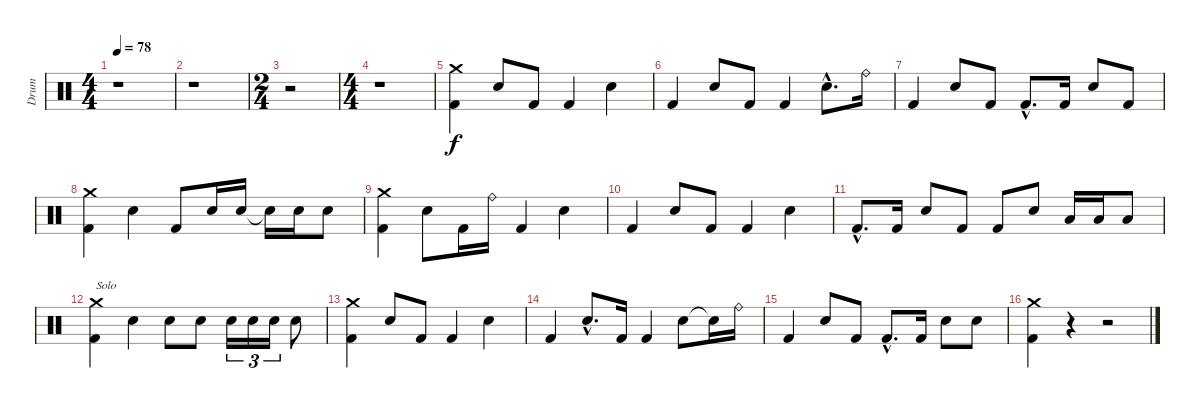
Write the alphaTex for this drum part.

\track ("Drum" "Drum") {instrument percussion}
\staff {score}
\articulation defaults
\ts (4 4)
\tempo 78
\clef neutral
\ks c
r.1{dy f} |
r.1 |
\ts (2 4)
r.2 |
\ts (4 4)
r.1 |
("Crash medium (hit)" "Kick (hit) 2").4 "Electric Snare (hit)".8 "Kick (hit) 2".8 "Kick (hit) 2".4 "Electric Snare (hit)".4 |
"Kick (hit) 2".4 "Electric Snare (hit)".8 "Kick (hit) 2".8 "Kick (hit) 2".4 "Electric Snare (hit)"{hac}.8{d} "Ride (bell)".16 |
"Kick (hit) 2".4 "Electric Snare (hit)".8 "Kick (hit) 2".8 "Kick (hit) 2"{hac}.8{d} "Kick (hit) 2".16 "Electric Snare (hit)".8 "Kick (hit) 2".8 |
("Crash medium (hit)" "Kick (hit) 2").4 "Electric Snare (hit)".4 "Kick (hit) 2".8 "Electric Snare (hit)".16 "Electric Snare (hit)".16 "Snare (hit)"{t}.16 "Electric Snare (hit)".16 "Electric Snare (hit)".8 |
("Crash medium (hit)" "Kick (hit) 2").4 "Electric Snare (hit)".8 "Kick (hit) 2".16 "Ride (bell)".16 "Kick (hit) 2".4 "Electric Snare (hit)".4 |
"Kick (hit) 2".4 "Electric Snare (hit)".8 "Kick (hit) 2".8 "Kick (hit) 2".4 "Electric Snare (hit)".4 |
"Kick (hit) 2"{hac}.8{d} "Kick (hit) 2".16 "Electric Snare (hit)".8 "Kick (hit) 2".8 "Kick (hit) 2".8 "Electric Snare (hit)".8 "Low Floor Tom (hit)".16 "Low Floor Tom (hit)".16 "Low Floor Tom (hit)".8 |
("Crash medium (hit)" "Kick (hit) 2").4{txt "Solo"} "Electric Snare (hit)".4 "Electric Snare (hit)".8 "Electric Snare (hit)".8 "Electric Snare (hit)".16{tu (3 2)} "Electric Snare (hit)".16{tu (3 2)} "Electric Snare (hit)".16{tu (3 2)} "Electric Snare (hit)".8 |
("Crash medium (hit)" "Kick (hit) 2").4 "Electric Snare (hit)".8 "Kick (hit) 2".8 "Kick (hit) 2".4 "Electric Snare (hit)".4 |
"Kick (hit) 2".4 "Electric Snare (hit)"{hac}.8{d} "Kick (hit) 2".16 "Kick (hit) 2".4 "Electric Snare (hit)".8 "Snare (hit)"{t}.16 "Ride (bell)".16 |
"Kick (hit) 2".4 "Electric Snare (hit)".8 "Kick (hit) 2".8 "Kick (hit) 2"{hac}.8{d} "Kick (hit) 2".16 "Electric Snare (hit)".8 "Electric Snare (hit)".8 |
("Crash medium (hit)" "Kick (hit) 2").4 r.4 r.2
